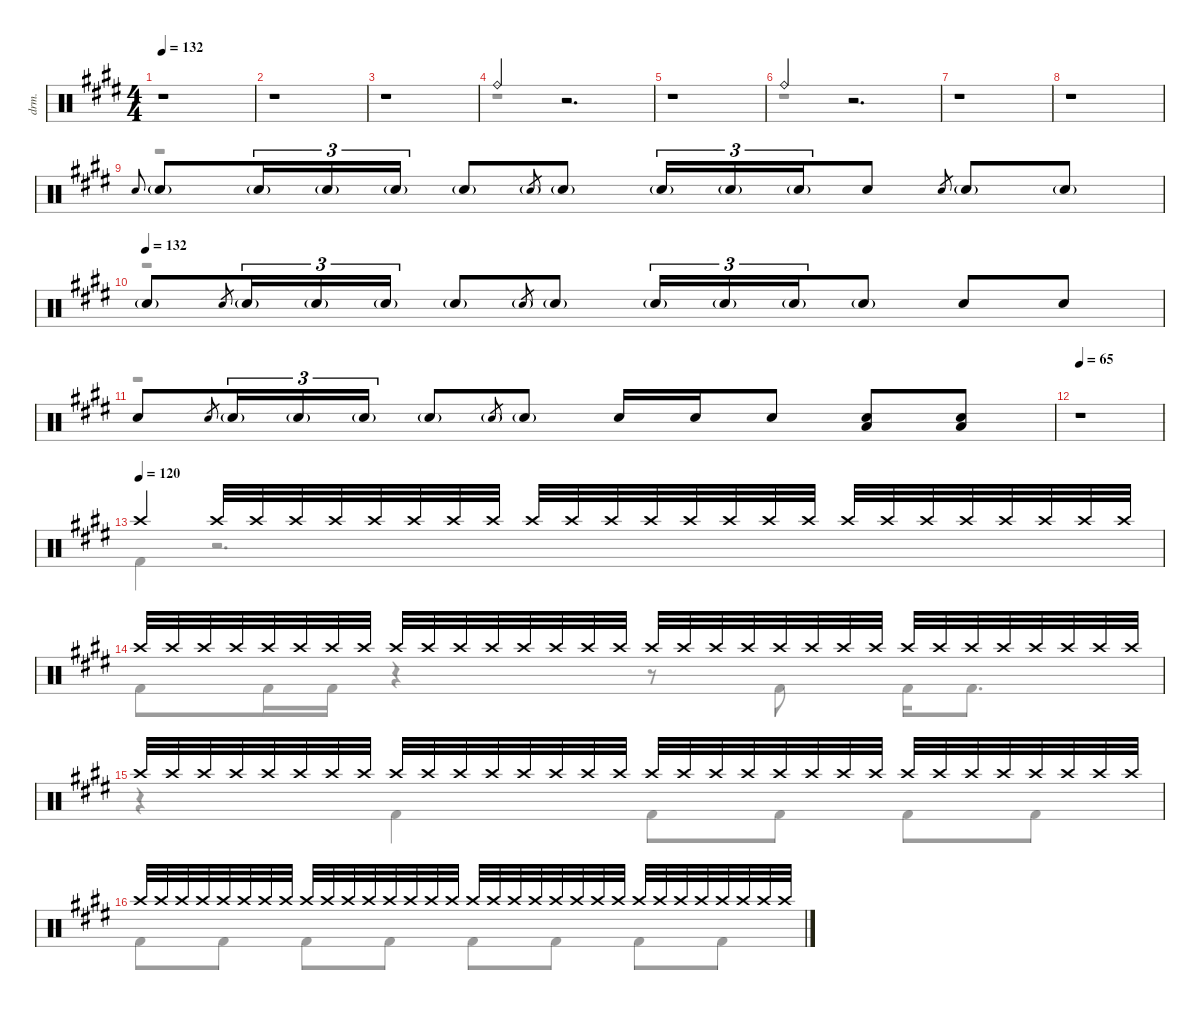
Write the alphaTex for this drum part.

\defaultSystemsLayout 4
\hideDynamics
\bracketExtendMode nobrackets
\track ("Drums" "drm.") {instrument percussion}
\staff {score}
\articulation defaults
\voice
\ts (4 4)
\tempo 132
\clef neutral
\ks e
r.1{dy mf} |
r.1 |
r.1 |
"Ride (bell)"{acc forcenatural}.4 r.2{d} |
r.1 |
"Ride (bell)"{acc forcenatural}.4 r.2{d} |
r.1 |
r.1 |
"Snare (hit) 2"{acc forcenatural}.8{gr onbeat} "Snare (hit) 2"{g acc forcenatural}.8{beam merge} "Snare (hit) 2"{g acc forcenatural}.16{tu (3 2)} "Snare (hit) 2"{g acc forcenatural}.16{tu (3 2)} "Snare (hit) 2"{g acc forcenatural}.16{tu (3 2)} "Snare (hit) 2"{g acc forcenatural}.8 "Snare (hit) 2"{g acc forcenatural}.8{gr} "Snare (hit) 2"{g acc forcenatural}.8 "Snare (hit) 2"{g acc forcenatural}.16{tu (3 2)} "Snare (hit) 2"{g acc forcenatural}.16{tu (3 2)} "Snare (hit) 2"{g acc forcenatural}.16{tu (3 2) beam merge} "Snare (hit) 2"{acc forcenatural}.8 "Snare (hit) 2"{acc forcenatural}.8{gr} "Snare (hit) 2"{g acc forcenatural}.8 "Snare (hit) 2"{g acc forcenatural}.8 |
\tempo (132)
"Snare (hit) 2"{g acc forcenatural}.8{beam merge} "Snare (hit) 2"{acc forcenatural}.8{gr beam merge} "Snare (hit) 2"{g acc forcenatural}.16{tu (3 2)} "Snare (hit) 2"{g acc forcenatural}.16{tu (3 2)} "Snare (hit) 2"{g acc forcenatural}.16{tu (3 2)} "Snare (hit) 2"{g acc forcenatural}.8 "Snare (hit) 2"{g acc forcenatural}.8{gr} "Snare (hit) 2"{g acc forcenatural}.8 "Snare (hit) 2"{g acc forcenatural}.16{tu (3 2)} "Snare (hit) 2"{g acc forcenatural}.16{tu (3 2)} "Snare (hit) 2"{g acc forcenatural}.16{tu (3 2) beam merge} "Snare (hit) 2"{g acc forcenatural}.8 "Snare (hit) 2"{acc forcenatural}.8 "Snare (hit) 2"{acc forcenatural}.8 |
"Snare (hit) 2"{acc forcenatural}.8{beam merge} "Snare (hit) 2"{acc forcenatural}.8{gr beam merge} "Snare (hit) 2"{g acc forcenatural}.16{tu (3 2)} "Snare (hit) 2"{g acc forcenatural}.16{tu (3 2)} "Snare (hit) 2"{g acc forcenatural}.16{tu (3 2)} "Snare (hit) 2"{g acc forcenatural}.8 "Snare (hit) 2"{g acc forcenatural}.8{gr} "Snare (hit) 2"{g acc forcenatural}.8 "Snare (hit) 2"{acc forcenatural}.16 "Snare (hit) 2"{acc forcenatural}.16 "Snare (hit) 2"{acc forcenatural}.8 ("Snare (hit) 2"{acc forcenatural} "Low Tom (hit)"{acc forcenatural}).8 ("Snare (hit) 2"{acc forcenatural} "Low Tom (hit)"{acc forcenatural}).8 |
\tempo 65
r.1 |
\tempo (120)
"Crash high (hit)"{acc forcenatural}.4 "Crash high (hit)"{acc forcenatural}.32 "Crash high (hit)"{acc forcenatural}.32 "Crash high (hit)"{acc forcenatural}.32 "Crash high (hit)"{acc forcenatural}.32 "Crash high (hit)"{acc forcenatural}.32 "Crash high (hit)"{acc forcenatural}.32 "Crash high (hit)"{acc forcenatural}.32 "Crash high (hit)"{acc forcenatural}.32 "Crash high (hit)"{acc forcenatural}.32 "Crash high (hit)"{acc forcenatural}.32 "Crash high (hit)"{acc forcenatural}.32 "Crash high (hit)"{acc forcenatural}.32 "Crash high (hit)"{acc forcenatural}.32 "Crash high (hit)"{acc forcenatural}.32 "Crash high (hit)"{acc forcenatural}.32 "Crash high (hit)"{acc forcenatural}.32 "Crash high (hit)"{acc forcenatural}.32 "Crash high (hit)"{acc forcenatural}.32 "Crash high (hit)"{acc forcenatural}.32 "Crash high (hit)"{acc forcenatural}.32 "Crash high (hit)"{acc forcenatural}.32 "Crash high (hit)"{acc forcenatural}.32 "Crash high (hit)"{acc forcenatural}.32 "Crash high (hit)"{acc forcenatural}.32 |
"Crash high (hit)"{acc forcenatural}.32 "Crash high (hit)"{acc forcenatural}.32 "Crash high (hit)"{acc forcenatural}.32 "Crash high (hit)"{acc forcenatural}.32 "Crash high (hit)"{acc forcenatural}.32 "Crash high (hit)"{acc forcenatural}.32 "Crash high (hit)"{acc forcenatural}.32 "Crash high (hit)"{acc forcenatural}.32 "Crash high (hit)"{acc forcenatural}.32 "Crash high (hit)"{acc forcenatural}.32 "Crash high (hit)"{acc forcenatural}.32 "Crash high (hit)"{acc forcenatural}.32 "Crash high (hit)"{acc forcenatural}.32 "Crash high (hit)"{acc forcenatural}.32 "Crash high (hit)"{acc forcenatural}.32 "Crash high (hit)"{acc forcenatural}.32 "Crash high (hit)"{acc forcenatural}.32 "Crash high (hit)"{acc forcenatural}.32 "Crash high (hit)"{acc forcenatural}.32 "Crash high (hit)"{acc forcenatural}.32 "Crash high (hit)"{acc forcenatural}.32 "Crash high (hit)"{acc forcenatural}.32 "Crash high (hit)"{acc forcenatural}.32 "Crash high (hit)"{acc forcenatural}.32 "Crash high (hit)"{acc forcenatural}.32 "Crash high (hit)"{acc forcenatural}.32 "Crash high (hit)"{acc forcenatural}.32 "Crash high (hit)"{acc forcenatural}.32 "Crash high (hit)"{acc forcenatural}.32 "Crash high (hit)"{acc forcenatural}.32 "Crash high (hit)"{acc forcenatural}.32 "Crash high (hit)"{acc forcenatural}.32 |
"Crash high (hit)"{acc forcenatural}.32 "Crash high (hit)"{acc forcenatural}.32 "Crash high (hit)"{acc forcenatural}.32 "Crash high (hit)"{acc forcenatural}.32 "Crash high (hit)"{acc forcenatural}.32 "Crash high (hit)"{acc forcenatural}.32 "Crash high (hit)"{acc forcenatural}.32 "Crash high (hit)"{acc forcenatural}.32 "Crash high (hit)"{acc forcenatural}.32 "Crash high (hit)"{acc forcenatural}.32 "Crash high (hit)"{acc forcenatural}.32 "Crash high (hit)"{acc forcenatural}.32 "Crash high (hit)"{acc forcenatural}.32 "Crash high (hit)"{acc forcenatural}.32 "Crash high (hit)"{acc forcenatural}.32 "Crash high (hit)"{acc forcenatural}.32 "Crash high (hit)"{acc forcenatural}.32 "Crash high (hit)"{acc forcenatural}.32 "Crash high (hit)"{acc forcenatural}.32 "Crash high (hit)"{acc forcenatural}.32 "Crash high (hit)"{acc forcenatural}.32 "Crash high (hit)"{acc forcenatural}.32 "Crash high (hit)"{acc forcenatural}.32 "Crash high (hit)"{acc forcenatural}.32 "Crash high (hit)"{acc forcenatural}.32 "Crash high (hit)"{acc forcenatural}.32 "Crash high (hit)"{acc forcenatural}.32 "Crash high (hit)"{acc forcenatural}.32 "Crash high (hit)"{acc forcenatural}.32 "Crash high (hit)"{acc forcenatural}.32 "Crash high (hit)"{acc forcenatural}.32 "Crash high (hit)"{acc forcenatural}.32 |
"Crash high (hit)"{acc forcenatural}.32 "Crash high (hit)"{acc forcenatural}.32 "Crash high (hit)"{acc forcenatural}.32 "Crash high (hit)"{acc forcenatural}.32 "Crash high (hit)"{acc forcenatural}.32 "Crash high (hit)"{acc forcenatural}.32 "Crash high (hit)"{acc forcenatural}.32 "Crash high (hit)"{acc forcenatural}.32 "Crash high (hit)"{acc forcenatural}.32 "Crash high (hit)"{acc forcenatural}.32 "Crash high (hit)"{acc forcenatural}.32 "Crash high (hit)"{acc forcenatural}.32 "Crash high (hit)"{acc forcenatural}.32 "Crash high (hit)"{acc forcenatural}.32 "Crash high (hit)"{acc forcenatural}.32 "Crash high (hit)"{acc forcenatural}.32 "Crash high (hit)"{acc forcenatural}.32 "Crash high (hit)"{acc forcenatural}.32 "Crash high (hit)"{acc forcenatural}.32 "Crash high (hit)"{acc forcenatural}.32 "Crash high (hit)"{acc forcenatural}.32 "Crash high (hit)"{acc forcenatural}.32 "Crash high (hit)"{acc forcenatural}.32 "Crash high (hit)"{acc forcenatural}.32 "Crash high (hit)"{acc forcenatural}.32 "Crash high (hit)"{acc forcenatural}.32 "Crash high (hit)"{acc forcenatural}.32 "Crash high (hit)"{acc forcenatural}.32 "Crash high (hit)"{acc forcenatural}.32 "Crash high (hit)"{acc forcenatural}.32 "Crash high (hit)"{acc forcenatural}.32 "Crash high (hit)"{acc forcenatural}.32
\voice
\clef neutral
\ottava regular
\simile none
\ks e
r.1{dy mf} |
r.1 |
r.1 |
r.1 |
r.1 |
r.1 |
r.1 |
r.1 |
r.1 |
r.1 |
r.1 |
r.1 |
"Kick (hit) 2"{acc forcenatural}.4 r.2{d} |
"Kick (hit) 2"{acc forcenatural}.8 "Kick (hit) 2"{acc forcenatural}.16 "Kick (hit) 2"{acc forcenatural}.16 r.4 r.8 "Kick (hit) 2"{acc forcenatural}.8 "Kick (hit) 2"{acc forcenatural}.16 "Kick (hit) 2"{acc forcenatural}.8{d} |
r.4 "Kick (hit) 2"{acc forcenatural}.4 "Kick (hit) 2"{acc forcenatural}.8 "Kick (hit) 2"{acc forcenatural}.8 "Kick (hit) 2"{acc forcenatural}.8 "Kick (hit) 2"{acc forcenatural}.8 |
"Kick (hit) 2"{acc forcenatural}.8 "Kick (hit) 2"{acc forcenatural}.8 "Kick (hit) 2"{acc forcenatural}.8 "Kick (hit) 2"{acc forcenatural}.8 "Kick (hit) 2"{acc forcenatural}.8 "Kick (hit) 2"{acc forcenatural}.8 "Kick (hit) 2"{acc forcenatural}.8 "Kick (hit) 2"{acc forcenatural}.8
